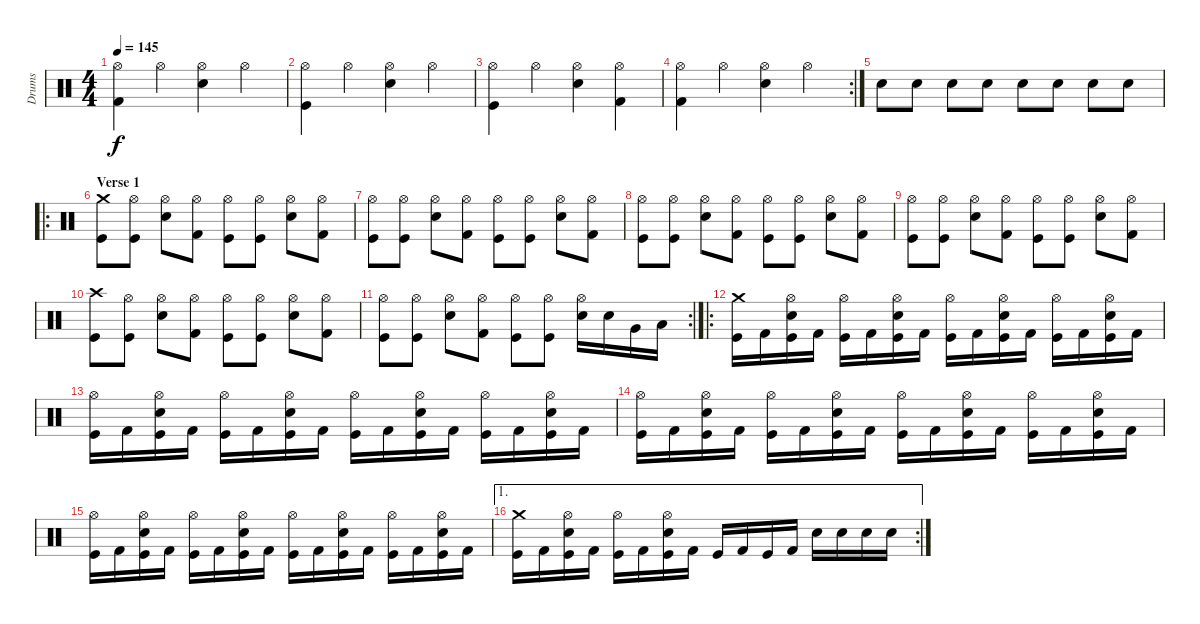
\track ("Drums" "Drums") {instrument percussion}
\staff {score}
\articulation defaults
\ts (4 4)
\tempo 145
\clef neutral
\ks c
("Hi-Hat (open)" "Kick (hit) 2").4{dy f} "Hi-Hat (open)".4 ("Hi-Hat (open)" "Electric Snare (hit)").4 "Hi-Hat (open)".4 |
("Hi-Hat (open)" "Kick (hit)").4 "Hi-Hat (open)".4 ("Hi-Hat (open)" "Electric Snare (hit)").4 "Hi-Hat (open)".4 |
("Hi-Hat (open)" "Kick (hit)").4 "Hi-Hat (open)".4 ("Hi-Hat (open)" "Electric Snare (hit)").4 ("Hi-Hat (open)" "Kick (hit) 2").4 |
\rc 2
("Hi-Hat (open)" "Kick (hit) 2").4 "Hi-Hat (open)".4 ("Hi-Hat (open)" "Electric Snare (hit)").4 "Hi-Hat (open)".4 |
"Electric Snare (hit)".8 "Electric Snare (hit)".8 "Electric Snare (hit)".8 "Electric Snare (hit)".8 "Electric Snare (hit)".8 "Electric Snare (hit)".8 "Electric Snare (hit)".8 "Electric Snare (hit)".8 |
\ro
\section ("" "Verse 1")
("Crash medium (hit)" "Kick (hit)").8 ("Hi-Hat (open)" "Kick (hit)").8 ("Hi-Hat (open)" "Electric Snare (hit)").8 ("Hi-Hat (open)" "Kick (hit) 2").8 ("Hi-Hat (open)" "Kick (hit)").8 ("Hi-Hat (open)" "Kick (hit)").8 ("Hi-Hat (open)" "Electric Snare (hit)").8 ("Hi-Hat (open)" "Kick (hit) 2").8 |
("Hi-Hat (open)" "Kick (hit)").8 ("Hi-Hat (open)" "Kick (hit)").8 ("Hi-Hat (open)" "Electric Snare (hit)").8 ("Hi-Hat (open)" "Kick (hit) 2").8 ("Hi-Hat (open)" "Kick (hit)").8 ("Hi-Hat (open)" "Kick (hit)").8 ("Hi-Hat (open)" "Electric Snare (hit)").8 ("Hi-Hat (open)" "Kick (hit) 2").8 |
("Hi-Hat (open)" "Kick (hit)").8 ("Hi-Hat (open)" "Kick (hit)").8 ("Hi-Hat (open)" "Electric Snare (hit)").8 ("Hi-Hat (open)" "Kick (hit) 2").8 ("Hi-Hat (open)" "Kick (hit)").8 ("Hi-Hat (open)" "Kick (hit)").8 ("Hi-Hat (open)" "Electric Snare (hit)").8 ("Hi-Hat (open)" "Kick (hit) 2").8 |
("Hi-Hat (open)" "Kick (hit)").8 ("Hi-Hat (open)" "Kick (hit)").8 ("Hi-Hat (open)" "Electric Snare (hit)").8 ("Hi-Hat (open)" "Kick (hit) 2").8 ("Hi-Hat (open)" "Kick (hit)").8 ("Hi-Hat (open)" "Kick (hit)").8 ("Hi-Hat (open)" "Electric Snare (hit)").8 ("Hi-Hat (open)" "Kick (hit) 2").8 |
("Crash high (hit)" "Kick (hit)").8 ("Hi-Hat (open)" "Kick (hit)").8 ("Hi-Hat (open)" "Electric Snare (hit)").8 ("Hi-Hat (open)" "Kick (hit) 2").8 ("Hi-Hat (open)" "Kick (hit)").8 ("Hi-Hat (open)" "Kick (hit)").8 ("Hi-Hat (open)" "Electric Snare (hit)").8 ("Hi-Hat (open)" "Kick (hit) 2").8 |
\rc 2
("Hi-Hat (open)" "Kick (hit)").8 ("Hi-Hat (open)" "Kick (hit)").8 ("Hi-Hat (open)" "Electric Snare (hit)").8 ("Hi-Hat (open)" "Kick (hit) 2").8 ("Hi-Hat (open)" "Kick (hit)").8 ("Hi-Hat (open)" "Kick (hit)").8 ("Hi-Hat (open)" "Electric Snare (hit)").16 "Electric Snare (hit)".16 "Very Low Tom (hit)".16 "Low Floor Tom (hit)".16 |
\ro
("Crash medium (hit)" "Kick (hit)").16 "Kick (hit) 2".16 ("Hi-Hat (open)" "Electric Snare (hit)" "Kick (hit)").16 "Kick (hit) 2".16 ("Hi-Hat (open)" "Kick (hit)").16 "Kick (hit) 2".16 ("Hi-Hat (open)" "Electric Snare (hit)" "Kick (hit)").16 "Kick (hit) 2".16 ("Hi-Hat (open)" "Kick (hit)").16 "Kick (hit) 2".16 ("Hi-Hat (open)" "Electric Snare (hit)" "Kick (hit)").16 "Kick (hit) 2".16 ("Hi-Hat (open)" "Kick (hit)").16 "Kick (hit) 2".16 ("Hi-Hat (open)" "Electric Snare (hit)" "Kick (hit)").16 "Kick (hit) 2".16 |
("Hi-Hat (open)" "Kick (hit)").16 "Kick (hit) 2".16 ("Hi-Hat (open)" "Electric Snare (hit)" "Kick (hit)").16 "Kick (hit) 2".16 ("Hi-Hat (open)" "Kick (hit)").16 "Kick (hit) 2".16 ("Hi-Hat (open)" "Electric Snare (hit)" "Kick (hit)").16 "Kick (hit) 2".16 ("Hi-Hat (open)" "Kick (hit)").16 "Kick (hit) 2".16 ("Hi-Hat (open)" "Electric Snare (hit)" "Kick (hit)").16 "Kick (hit) 2".16 ("Hi-Hat (open)" "Kick (hit)").16 "Kick (hit) 2".16 ("Hi-Hat (open)" "Electric Snare (hit)" "Kick (hit)").16 "Kick (hit) 2".16 |
("Hi-Hat (open)" "Kick (hit)").16 "Kick (hit) 2".16 ("Hi-Hat (open)" "Electric Snare (hit)" "Kick (hit)").16 "Kick (hit) 2".16 ("Hi-Hat (open)" "Kick (hit)").16 "Kick (hit) 2".16 ("Hi-Hat (open)" "Electric Snare (hit)" "Kick (hit)").16 "Kick (hit) 2".16 ("Hi-Hat (open)" "Kick (hit)").16 "Kick (hit) 2".16 ("Hi-Hat (open)" "Electric Snare (hit)" "Kick (hit)").16 "Kick (hit) 2".16 ("Hi-Hat (open)" "Kick (hit)").16 "Kick (hit) 2".16 ("Hi-Hat (open)" "Electric Snare (hit)" "Kick (hit)").16 "Kick (hit) 2".16 |
("Hi-Hat (open)" "Kick (hit)").16 "Kick (hit) 2".16 ("Hi-Hat (open)" "Electric Snare (hit)" "Kick (hit)").16 "Kick (hit) 2".16 ("Hi-Hat (open)" "Kick (hit)").16 "Kick (hit) 2".16 ("Hi-Hat (open)" "Electric Snare (hit)" "Kick (hit)").16 "Kick (hit) 2".16 ("Hi-Hat (open)" "Kick (hit)").16 "Kick (hit) 2".16 ("Hi-Hat (open)" "Electric Snare (hit)" "Kick (hit)").16 "Kick (hit) 2".16 ("Hi-Hat (open)" "Kick (hit)").16 "Kick (hit) 2".16 ("Hi-Hat (open)" "Electric Snare (hit)" "Kick (hit)").16 "Kick (hit) 2".16 |
\ae 1
\rc 2
("Crash medium (hit)" "Kick (hit)").16 "Kick (hit) 2".16 ("Hi-Hat (open)" "Electric Snare (hit)" "Kick (hit)").16 "Kick (hit) 2".16 ("Hi-Hat (open)" "Kick (hit)").16 "Kick (hit) 2".16 ("Hi-Hat (open)" "Electric Snare (hit)" "Kick (hit)").16 "Kick (hit) 2".16 "Kick (hit)".16 "Kick (hit) 2".16 "Kick (hit)".16 "Kick (hit) 2".16 "Electric Snare (hit)".16 "Electric Snare (hit)".16 "Electric Snare (hit)".16 "Electric Snare (hit)".16
